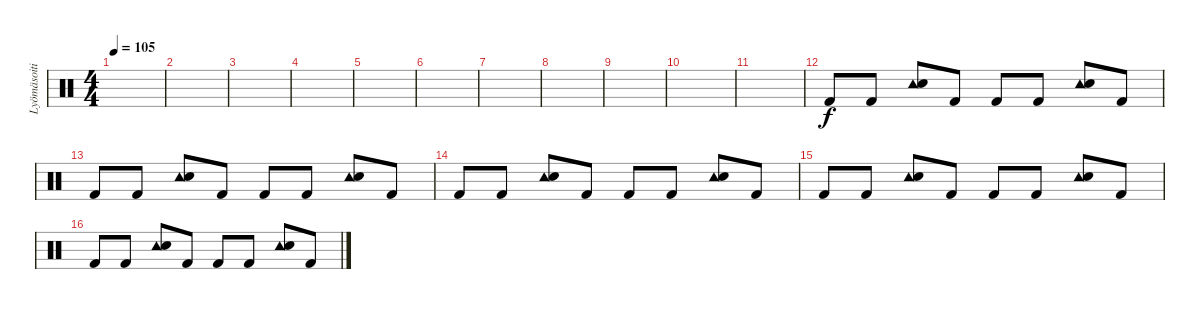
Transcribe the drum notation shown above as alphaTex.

\track ("Lyömäsoitin" "Lyömäsoiti") {instrument percussion}
\staff {score}
\articulation defaults
\ts (4 4)
\tempo 105
\clef neutral
\ks c
|
|
|
|
|
|
|
|
|
|
|
"Kick (hit) 2".8 "Kick (hit) 2".8 ("Tambourine (hit)" "Electric Snare (hit)").8 "Kick (hit) 2".8 "Kick (hit) 2".8 "Kick (hit) 2".8 ("Tambourine (hit)" "Electric Snare (hit)").8 "Kick (hit) 2".8 |
"Kick (hit) 2".8 "Kick (hit) 2".8 ("Tambourine (hit)" "Electric Snare (hit)").8 "Kick (hit) 2".8 "Kick (hit) 2".8 "Kick (hit) 2".8 ("Tambourine (hit)" "Electric Snare (hit)").8 "Kick (hit) 2".8 |
"Kick (hit) 2".8 "Kick (hit) 2".8 ("Tambourine (hit)" "Electric Snare (hit)").8 "Kick (hit) 2".8 "Kick (hit) 2".8 "Kick (hit) 2".8 ("Tambourine (hit)" "Electric Snare (hit)").8 "Kick (hit) 2".8 |
"Kick (hit) 2".8 "Kick (hit) 2".8 ("Tambourine (hit)" "Electric Snare (hit)").8 "Kick (hit) 2".8 "Kick (hit) 2".8 "Kick (hit) 2".8 ("Tambourine (hit)" "Electric Snare (hit)").8 "Kick (hit) 2".8 |
"Kick (hit) 2".8 "Kick (hit) 2".8 ("Tambourine (hit)" "Electric Snare (hit)").8 "Kick (hit) 2".8 "Kick (hit) 2".8 "Kick (hit) 2".8 ("Tambourine (hit)" "Electric Snare (hit)").8 "Kick (hit) 2".8
